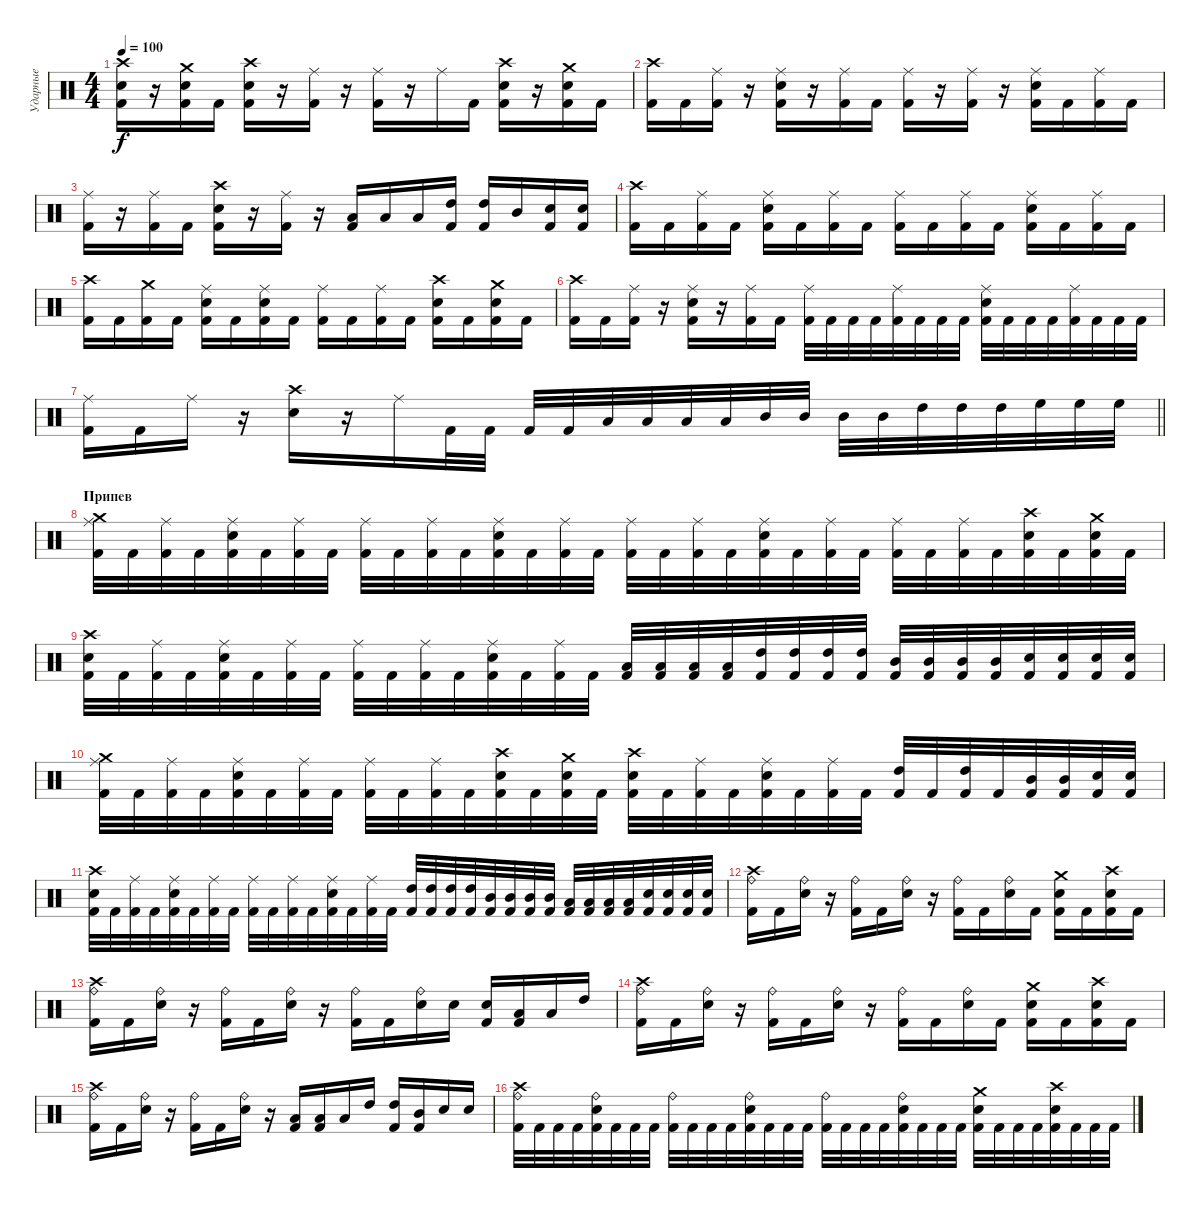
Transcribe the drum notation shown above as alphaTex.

\track ("Ударные" "Ударные") {instrument percussion}
\staff {score}
\articulation defaults
\ts (4 4)
\tempo 100
\clef neutral
\ks c
("Snare (hit) 2" "Crash high (hit)" "Kick (hit) 2").16{dy f} r.16 ("Crash medium (hit)" "Snare (hit) 2" "Kick (hit) 2").16 "Kick (hit) 2".16 ("Crash high (hit)" "Snare (hit) 2" "Kick (hit) 2").16 r.16 ("Ride (middle)" "Kick (hit) 2").16 r.16 ("Ride (middle)" "Kick (hit) 2").16 r.16 "Ride (middle)".16 "Kick (hit) 2".16 ("Crash high (hit)" "Snare (hit) 2" "Kick (hit) 2").16 r.16 ("Crash medium (hit)" "Snare (hit) 2" "Kick (hit) 2").16 "Kick (hit) 2".16 |
("Crash high (hit)" "Kick (hit) 2").16 "Kick (hit) 2".16 ("Ride (middle)" "Kick (hit) 2").16 r.16 ("Ride (middle)" "Snare (hit) 2" "Kick (hit) 2").16 r.16 ("Ride (middle)" "Kick (hit) 2").16 "Kick (hit) 2".16 ("Ride (middle)" "Kick (hit) 2").16 r.16 ("Ride (middle)" "Kick (hit) 2").16 r.16 ("Ride (middle)" "Snare (hit) 2" "Kick (hit) 2").16 "Kick (hit) 2".16 ("Ride (middle)" "Kick (hit) 2").16 "Kick (hit) 2".16 |
("Ride (middle)" "Kick (hit) 2").16 r.16 ("Ride (middle)" "Kick (hit) 2").16 "Kick (hit) 2".16 ("Crash high (hit)" "Snare (hit) 2" "Kick (hit) 2").16 r.16 ("Ride (middle)" "Kick (hit) 2").16 r.16 ("Low Tom (hit)" "Kick (hit) 2").16 "Low Tom (hit)".16 "Low Tom (hit)".16 ("High Tom (hit)" "Kick (hit) 2").16 ("High Tom (hit)" "Kick (hit) 2").16 "Mid Tom (hit)".16 ("Snare (hit) 2" "Kick (hit) 2").16 ("Snare (hit) 2" "Kick (hit) 2").16 |
("Crash high (hit)" "Kick (hit) 2").16 "Kick (hit) 2".16 ("Ride (middle)" "Kick (hit) 2").16 "Kick (hit) 2".16 ("Ride (middle)" "Snare (hit) 2" "Kick (hit) 2").16 "Kick (hit) 2".16 ("Ride (middle)" "Kick (hit) 2").16 "Kick (hit) 2".16 ("Ride (middle)" "Kick (hit) 2").16 "Kick (hit) 2".16 ("Ride (middle)" "Kick (hit) 2").16 "Kick (hit) 2".16 ("Ride (middle)" "Snare (hit) 2" "Kick (hit) 2").16 "Kick (hit) 2".16 ("Ride (middle)" "Kick (hit) 2").16 "Kick (hit) 2".16 |
("Crash high (hit)" "Kick (hit) 2").16 "Kick (hit) 2".16 ("Crash medium (hit)" "Kick (hit) 2").16 "Kick (hit) 2".16 ("Ride (middle)" "Snare (hit) 2" "Kick (hit) 2").16 "Kick (hit) 2".16 ("Ride (middle)" "Snare (hit) 2" "Kick (hit) 2").16 "Kick (hit) 2".16 ("Ride (middle)" "Kick (hit) 2").16 "Kick (hit) 2".16 ("Ride (middle)" "Kick (hit) 2").16 "Kick (hit) 2".16 ("Crash high (hit)" "Snare (hit) 2" "Kick (hit) 2").16 "Kick (hit) 2".16 ("Crash medium (hit)" "Snare (hit) 2" "Kick (hit) 2").16 "Kick (hit) 2".16 |
("Crash high (hit)" "Kick (hit) 2").16 "Kick (hit) 2".16 ("Ride (middle)" "Kick (hit) 2").16 r.16 ("Ride (middle)" "Snare (hit) 2" "Kick (hit) 2").16 r.16 ("Ride (middle)" "Kick (hit) 2").16 "Kick (hit) 2".16 ("Ride (middle)" "Kick (hit) 2").32 "Kick (hit) 2".32 "Kick (hit) 2".32 "Kick (hit) 2".32 ("Ride (middle)" "Kick (hit) 2").32 "Kick (hit) 2".32 "Kick (hit) 2".32 "Kick (hit) 2".32 ("Ride (middle)" "Snare (hit) 2" "Kick (hit) 2").32 "Kick (hit) 2".32 "Kick (hit) 2".32 "Kick (hit) 2".32 ("Ride (middle)" "Kick (hit) 2").32 "Kick (hit) 2".32 "Kick (hit) 2".32 "Kick (hit) 2".32 |
\barLineRight lightlight
("Ride (middle)" "Kick (hit) 2").16 "Kick (hit) 2".16 "Ride (middle)".16 r.16 ("Crash high (hit)" "Snare (hit) 2").16 r.16 "Ride (middle)".16 "Kick (hit) 2".32 "Kick (hit) 2".32 "Kick (hit) 2".32 "Kick (hit) 2".32 "Low Tom (hit)".32 "Low Tom (hit)".32 "Low Tom (hit)".32 "Low Tom (hit)".32 "Mid Tom (hit)".32 "Mid Tom (hit)".32 "Mid Tom (hit)".32 "Mid Tom (hit)".32 "High Tom (hit)".32 "High Tom (hit)".32 "High Tom (hit)".32 "High Floor Tom (hit)".32 "High Floor Tom (hit)".32 "High Floor Tom (hit)".32 |
\section ("" "Припев")
("Ride (middle)" "Crash medium (hit)" "Kick (hit) 2").32 "Kick (hit) 2".32 ("Ride (middle)" "Kick (hit) 2").32 "Kick (hit) 2".32 ("Ride (middle)" "Snare (hit) 2" "Kick (hit) 2").32 "Kick (hit) 2".32 ("Ride (middle)" "Kick (hit) 2").32 "Kick (hit) 2".32 ("Ride (middle)" "Kick (hit) 2").32 "Kick (hit) 2".32 ("Ride (middle)" "Kick (hit) 2").32 "Kick (hit) 2".32 ("Ride (middle)" "Snare (hit) 2" "Kick (hit) 2").32 "Kick (hit) 2".32 ("Ride (middle)" "Kick (hit) 2").32 "Kick (hit) 2".32 ("Ride (middle)" "Kick (hit) 2").32 "Kick (hit) 2".32 ("Ride (middle)" "Kick (hit) 2").32 "Kick (hit) 2".32 ("Ride (middle)" "Snare (hit) 2" "Kick (hit) 2").32 "Kick (hit) 2".32 ("Ride (middle)" "Kick (hit) 2").32 "Kick (hit) 2".32 ("Ride (middle)" "Kick (hit) 2").32 "Kick (hit) 2".32 ("Ride (middle)" "Kick (hit) 2").32 "Kick (hit) 2".32 ("Crash high (hit)" "Snare (hit) 2" "Kick (hit) 2").32 "Kick (hit) 2".32 ("Crash medium (hit)" "Snare (hit) 2" "Kick (hit) 2").32 "Kick (hit) 2".32 |
("Snare (hit) 2" "Crash high (hit)" "Kick (hit) 2").32 "Kick (hit) 2".32 ("Ride (middle)" "Kick (hit) 2").32 "Kick (hit) 2".32 ("Ride (middle)" "Snare (hit) 2" "Kick (hit) 2").32 "Kick (hit) 2".32 ("Ride (middle)" "Kick (hit) 2").32 "Kick (hit) 2".32 ("Ride (middle)" "Kick (hit) 2").32 "Kick (hit) 2".32 ("Ride (middle)" "Kick (hit) 2").32 "Kick (hit) 2".32 ("Ride (middle)" "Snare (hit) 2" "Kick (hit) 2").32 "Kick (hit) 2".32 ("Ride (middle)" "Kick (hit) 2").32 "Kick (hit) 2".32 ("Low Tom (hit)" "Kick (hit) 2").32 ("Low Tom (hit)" "Kick (hit) 2").32 ("Low Tom (hit)" "Kick (hit) 2").32 ("Low Tom (hit)" "Kick (hit) 2").32 ("High Tom (hit)" "Kick (hit) 2").32 ("High Tom (hit)" "Kick (hit) 2").32 ("High Tom (hit)" "Kick (hit) 2").32 ("High Tom (hit)" "Kick (hit) 2").32 ("Mid Tom (hit)" "Kick (hit) 2").32 ("Mid Tom (hit)" "Kick (hit) 2").32 ("Mid Tom (hit)" "Kick (hit) 2").32 ("Mid Tom (hit)" "Kick (hit) 2").32 ("Snare (hit) 2" "Kick (hit) 2").32 ("Snare (hit) 2" "Kick (hit) 2").32 ("Snare (hit) 2" "Kick (hit) 2").32 ("Snare (hit) 2" "Kick (hit) 2").32 |
("Ride (middle)" "Crash medium (hit)" "Kick (hit) 2").32 "Kick (hit) 2".32 ("Ride (middle)" "Kick (hit) 2").32 "Kick (hit) 2".32 ("Ride (middle)" "Snare (hit) 2" "Kick (hit) 2").32 "Kick (hit) 2".32 ("Ride (middle)" "Kick (hit) 2").32 "Kick (hit) 2".32 ("Ride (middle)" "Kick (hit) 2").32 "Kick (hit) 2".32 ("Ride (middle)" "Kick (hit) 2").32 "Kick (hit) 2".32 ("Crash high (hit)" "Snare (hit) 2" "Kick (hit) 2").32 "Kick (hit) 2".32 ("Crash medium (hit)" "Snare (hit) 2" "Kick (hit) 2").32 "Kick (hit) 2".32 ("Crash high (hit)" "Snare (hit) 2" "Kick (hit) 2").32 "Kick (hit) 2".32 ("Ride (middle)" "Kick (hit) 2").32 "Kick (hit) 2".32 ("Ride (middle)" "Snare (hit) 2" "Kick (hit) 2").32 "Kick (hit) 2".32 ("Ride (middle)" "Kick (hit) 2").32 "Kick (hit) 2".32 ("High Tom (hit)" "Kick (hit) 2").32 "Kick (hit) 2".32 ("High Tom (hit)" "Kick (hit) 2").32 "Kick (hit) 2".32 ("Mid Tom (hit)" "Kick (hit) 2").32 ("Mid Tom (hit)" "Kick (hit) 2").32 ("Snare (hit) 2" "Kick (hit) 2").32 ("Snare (hit) 2" "Kick (hit) 2").32 |
("Snare (hit) 2" "Crash high (hit)" "Kick (hit) 2").32 "Kick (hit) 2".32 ("Ride (middle)" "Kick (hit) 2").32 "Kick (hit) 2".32 ("Ride (middle)" "Snare (hit) 2" "Kick (hit) 2").32 "Kick (hit) 2".32 ("Ride (middle)" "Kick (hit) 2").32 "Kick (hit) 2".32 ("Ride (middle)" "Kick (hit) 2").32 "Kick (hit) 2".32 ("Ride (middle)" "Kick (hit) 2").32 "Kick (hit) 2".32 ("Ride (middle)" "Snare (hit) 2" "Kick (hit) 2").32 "Kick (hit) 2".32 ("Ride (middle)" "Kick (hit) 2").32 "Kick (hit) 2".32 ("High Tom (hit)" "Kick (hit) 2").32 ("High Tom (hit)" "Kick (hit) 2").32 ("High Tom (hit)" "Kick (hit) 2").32 ("High Tom (hit)" "Kick (hit) 2").32 ("Mid Tom (hit)" "Kick (hit) 2").32 ("Mid Tom (hit)" "Kick (hit) 2").32 ("Mid Tom (hit)" "Kick (hit) 2").32 ("Mid Tom (hit)" "Kick (hit) 2").32 ("Low Tom (hit)" "Kick (hit) 2").32 ("Low Tom (hit)" "Kick (hit) 2").32 ("Low Tom (hit)" "Kick (hit) 2").32 ("Low Tom (hit)" "Kick (hit) 2").32 ("Snare (hit) 2" "Kick (hit) 2").32 ("Snare (hit) 2" "Kick (hit) 2").32 ("Snare (hit) 2" "Kick (hit) 2").32 ("Snare (hit) 2" "Kick (hit) 2").32 |
("Ride (bell)" "Crash high (hit)" "Kick (hit) 2").16 "Kick (hit) 2".16 ("Ride (bell)" "Snare (hit) 2").16 r.16 ("Ride (bell)" "Kick (hit) 2").16 "Kick (hit) 2".16 ("Ride (bell)" "Snare (hit) 2").16 r.16 ("Ride (bell)" "Kick (hit) 2").16 "Kick (hit) 2".16 ("Ride (bell)" "Snare (hit) 2").16 "Kick (hit) 2".16 ("Crash medium (hit)" "Snare (hit) 2" "Kick (hit) 2").16 "Kick (hit) 2".16 ("Crash high (hit)" "Snare (hit) 2" "Kick (hit) 2").16 "Kick (hit) 2".16 |
("Ride (bell)" "Crash high (hit)" "Kick (hit) 2").16 "Kick (hit) 2".16 ("Ride (bell)" "Snare (hit) 2").16 r.16 ("Ride (bell)" "Kick (hit) 2").16 "Kick (hit) 2".16 ("Ride (bell)" "Snare (hit) 2").16 r.16 ("Ride (bell)" "Kick (hit) 2").16 "Kick (hit) 2".16 ("Ride (bell)" "Snare (hit) 2").16 "Snare (hit) 2".16 ("Snare (hit) 2" "Kick (hit) 2").16 ("Low Tom (hit)" "Kick (hit) 2").16 "Low Tom (hit)".16 "High Tom (hit)".16 |
("Ride (bell)" "Crash high (hit)" "Kick (hit) 2").16 "Kick (hit) 2".16 ("Ride (bell)" "Snare (hit) 2").16 r.16 ("Ride (bell)" "Kick (hit) 2").16 "Kick (hit) 2".16 ("Ride (bell)" "Snare (hit) 2").16 r.16 ("Ride (bell)" "Kick (hit) 2").16 "Kick (hit) 2".16 ("Ride (bell)" "Snare (hit) 2").16 "Kick (hit) 2".16 ("Crash medium (hit)" "Snare (hit) 2" "Kick (hit) 2").16 "Kick (hit) 2".16 ("Crash high (hit)" "Snare (hit) 2" "Kick (hit) 2").16 "Kick (hit) 2".16 |
("Ride (bell)" "Crash high (hit)" "Kick (hit) 2").16 "Kick (hit) 2".16 ("Ride (bell)" "Snare (hit) 2").16 r.16 ("Ride (bell)" "Kick (hit) 2").16 "Kick (hit) 2".16 ("Ride (bell)" "Snare (hit) 2").16 r.16 ("Low Tom (hit)" "Kick (hit) 2").16 ("Low Tom (hit)" "Kick (hit) 2").16 "Low Tom (hit)".16 "High Tom (hit)".16 ("High Tom (hit)" "Kick (hit) 2").16 ("Mid Tom (hit)" "Kick (hit) 2").16 "Snare (hit) 2".16 "Snare (hit) 2".16 |
("Ride (bell)" "Crash high (hit)" "Kick (hit) 2").32 "Kick (hit) 2".32 "Kick (hit) 2".32 "Kick (hit) 2".32 ("Ride (bell)" "Snare (hit) 2" "Kick (hit) 2").32 "Kick (hit) 2".32 "Kick (hit) 2".32 "Kick (hit) 2".32 ("Ride (bell)" "Kick (hit) 2").32 "Kick (hit) 2".32 "Kick (hit) 2".32 "Kick (hit) 2".32 ("Ride (bell)" "Snare (hit) 2" "Kick (hit) 2").32 "Kick (hit) 2".32 "Kick (hit) 2".32 "Kick (hit) 2".32 ("Ride (bell)" "Kick (hit) 2").32 "Kick (hit) 2".32 "Kick (hit) 2".32 "Kick (hit) 2".32 ("Ride (bell)" "Snare (hit) 2" "Kick (hit) 2").32 "Kick (hit) 2".32 "Kick (hit) 2".32 "Kick (hit) 2".32 ("Crash medium (hit)" "Snare (hit) 2" "Kick (hit) 2").32 "Kick (hit) 2".32 "Kick (hit) 2".32 "Kick (hit) 2".32 ("Crash high (hit)" "Snare (hit) 2" "Kick (hit) 2").32 "Kick (hit) 2".32 "Kick (hit) 2".32 "Kick (hit) 2".32
